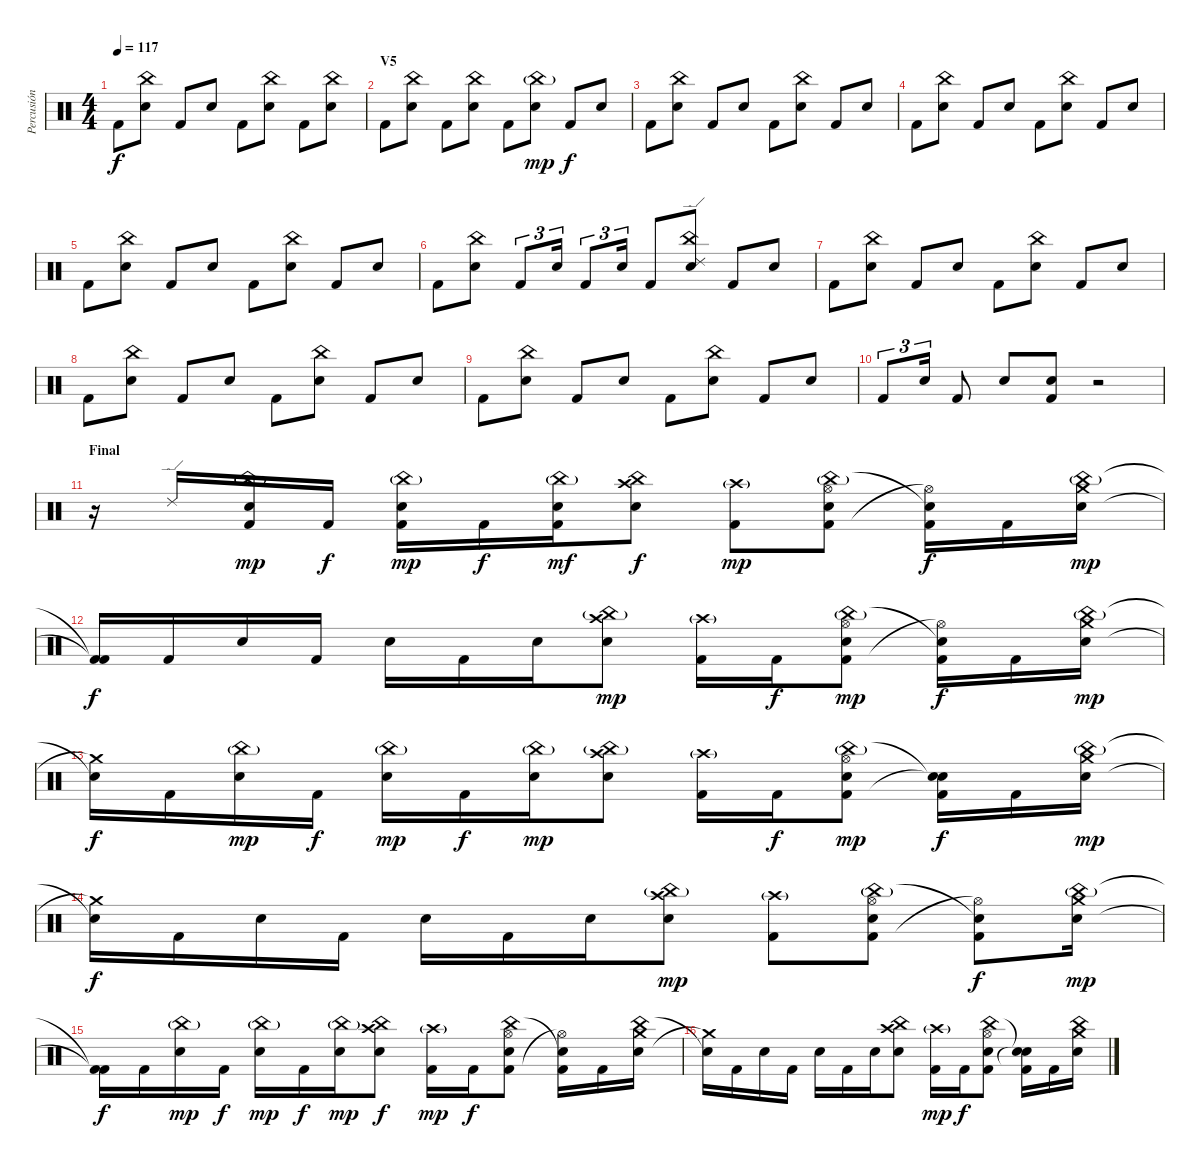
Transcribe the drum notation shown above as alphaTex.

\track ("Percusión" "Percusión") {instrument percussion}
\staff {score}
\articulation defaults
\ts (4 4)
\tempo 117
\clef neutral
\ks c "Kick (hit) 2".8{dy f}
("Snare (hit) 2" "China (hit)").8 "Kick (hit) 2".8 "Snare (hit) 2".8 "Kick (hit) 2".8 ("Electric Snare (hit)" "China (hit)").8 "Kick (hit) 2".8 ("Electric Snare (hit)" "China (hit)").8 |
\section ("" "V5")
"Kick (hit) 2".8 ("Electric Snare (hit)" "China (hit)").8 "Kick (hit) 2".8 ("Electric Snare (hit)" "China (hit)").8 "Kick (hit) 2".8 ("Snare (hit) 2" "China (hit)"{g}).8{dy mp} "Kick (hit) 2".8{dy f} "Snare (hit) 2".8 |
"Kick (hit) 2".8 ("Snare (hit) 2" "China (hit)").8 "Kick (hit) 2".8 "Snare (hit) 2".8 "Kick (hit) 2".8 ("Snare (hit) 2" "China (hit)").8 "Kick (hit) 2".8 "Snare (hit) 2".8 |
"Kick (hit) 2".8 ("Snare (hit) 2" "China (hit)").8 "Kick (hit) 2".8 "Snare (hit) 2".8 "Kick (hit) 2".8 ("Snare (hit) 2" "China (hit)").8 "Kick (hit) 2".8 "Snare (hit) 2".8 |
"Kick (hit) 2".8 ("Snare (hit) 2" "China (hit)").8 "Kick (hit) 2".8 "Snare (hit) 2".8 "Kick (hit) 2".8 ("Snare (hit) 2" "China (hit)").8 "Kick (hit) 2".8 "Snare (hit) 2".8 |
"Kick (hit) 2".8 ("Snare (hit) 2" "China (hit)").8 "Kick (hit) 2".8{tu (3 2)} "Snare (hit) 2".16{tu (3 2)} "Kick (hit) 2".8{tu (3 2)} "Snare (hit) 2".16{tu (3 2)} "Kick (hit) 2".8 ("Snare (hit) 2" "China (hit)" "Ride (edge) 2").8 "Kick (hit) 2".8 "Snare (hit) 2".8 |
"Kick (hit) 2".8 ("Snare (hit) 2" "China (hit)").8 "Kick (hit) 2".8 "Snare (hit) 2".8 "Kick (hit) 2".8 ("Snare (hit) 2" "China (hit)").8 "Kick (hit) 2".8 "Snare (hit) 2".8 |
"Kick (hit) 2".8 ("Snare (hit) 2" "China (hit)").8 "Kick (hit) 2".8 "Snare (hit) 2".8 "Kick (hit) 2".8 ("Snare (hit) 2" "China (hit)").8 "Kick (hit) 2".8 "Snare (hit) 2".8 |
"Kick (hit) 2".8 ("Snare (hit) 2" "China (hit)").8 "Kick (hit) 2".8 "Snare (hit) 2".8 "Kick (hit) 2".8 ("Snare (hit) 2" "China (hit)").8 "Kick (hit) 2".8 "Snare (hit) 2".8 |
"Kick (hit) 2".8{tu (3 2)} "Snare (hit) 2".16{tu (3 2)} "Kick (hit) 2".8 "Snare (hit) 2".8 ("Kick (hit) 2" "Snare (hit) 2").8 r.2 |
\section ("" "Final")
r.16 "Ride (edge) 2".16 ("China (hit)"{g} "Electric Snare (hit)" "Kick (hit) 2").16{dy mp} "Kick (hit) 2".16{dy f} ("China (hit)"{g} "Electric Snare (hit)" "Kick (hit) 2").16{dy mp} "Kick (hit) 2".16{dy f} ("China (hit)"{g} "Electric Snare (hit)" "Kick (hit) 2").16{dy mf} ("China (hit)" "Electric Snare (hit)" "Crash high (hit)").8{dy f} ("Crash high (hit)"{g} "Kick (hit) 2").8{dy mp} ("China (hit)"{g} "Kick (hit) 2" "Hi-Hat (open)" "Electric Snare (hit)").8 ("Snare (hit)"{t} "Hi-Hat (open)"{t} "Kick (hit) 2").16{dy f} "Kick (hit) 2".16 ("China (hit)"{g} "Electric Snare (hit)" "Crash medium (hit)").16{dy mp} |
("Kick (hit) 2"{t} "Kick (hit) 2"{t}).16{dy f} "Kick (hit) 2".16 "Snare (hit) 2".16 "Kick (hit) 2".16 "Snare (hit) 2".16 "Kick (hit) 2".16 "Snare (hit) 2".16 ("China (hit)"{g} "Electric Snare (hit)" "Crash high (hit)").8{dy mp} ("Crash high (hit)"{g} "Kick (hit) 2").16 "Kick (hit) 2".16{dy f} ("China (hit)"{g} "Kick (hit) 2" "Hi-Hat (open)" "Electric Snare (hit)").8{dy mp} ("Snare (hit)"{t} "Hi-Hat (open)"{t} "Kick (hit) 2").16{dy f} "Kick (hit) 2".16 ("China (hit)"{g} "Electric Snare (hit)" "Crash medium (hit)").16{dy mp} |
("Snare (hit)"{t} "Crash medium (hit)"{t}).16{dy f} "Kick (hit) 2".16 ("China (hit)"{g} "Electric Snare (hit)").16{dy mp} "Kick (hit) 2".16{dy f} ("China (hit)"{g} "Electric Snare (hit)").16{dy mp} "Kick (hit) 2".16{dy f} ("China (hit)"{g} "Electric Snare (hit)").16{dy mp} ("China (hit)"{g} "Snare (hit) 2" "Crash high (hit)").8 ("Crash high (hit)"{g} "Kick (hit) 2").16 "Kick (hit) 2".16{dy f} ("China (hit)"{g} "Kick (hit) 2" "Hi-Hat (open)" "Electric Snare (hit)").8{dy mp} ("Snare (hit)"{t} "Snare (hit)"{t} "Kick (hit) 2").16{dy f} "Kick (hit) 2".16 ("China (hit)"{g} "Snare (hit) 2" "Crash medium (hit)").16{dy mp} |
("Snare (hit)"{t} "Crash medium (hit)"{t}).16{dy f} "Kick (hit) 2".16 "Snare (hit) 2".16 "Kick (hit) 2".16 "Snare (hit) 2".16 "Kick (hit) 2".16 "Snare (hit) 2".16 ("China (hit)"{g} "Snare (hit) 2" "Crash high (hit)").8{dy mp} ("Crash high (hit)"{g} "Kick (hit) 2").8 ("China (hit)"{g} "Kick (hit) 2" "Hi-Hat (open)" "Electric Snare (hit)").8 ("Snare (hit)"{t} "Hi-Hat (open)"{t} "Kick (hit) 2").8{dy f} ("China (hit)"{g} "Snare (hit) 2" "Crash medium (hit)").16{dy mp} |
("Kick (hit) 2"{t} "Kick (hit) 2"{t}).16{dy f} "Kick (hit) 2".16 ("China (hit)"{g} "Electric Snare (hit)").16{dy mp} "Kick (hit) 2".16{dy f} ("China (hit)"{g} "Electric Snare (hit)").16{dy mp} "Kick (hit) 2".16{dy f} ("China (hit)"{g} "Electric Snare (hit)").16{dy mp} ("China (hit)" "Electric Snare (hit)" "Crash high (hit)").8{dy f} ("Crash high (hit)"{g} "Kick (hit) 2").16{dy mp} "Kick (hit) 2".16{dy f} ("China (hit)" "Kick (hit) 2" "Hi-Hat (open)" "Electric Snare (hit)").8 ("Snare (hit)"{t} "Hi-Hat (open)"{t} "Kick (hit) 2").16 "Kick (hit) 2".16 ("China (hit)" "Electric Snare (hit)" "Crash medium (hit)").16 |
("Snare (hit)"{t} "Crash medium (hit)"{t}).16 "Kick (hit) 2".16 "Snare (hit) 2".16 "Kick (hit) 2".16 "Snare (hit) 2".16 "Kick (hit) 2".16 "Snare (hit) 2".16 ("China (hit)" "Snare (hit) 2" "Crash high (hit)").8 ("Crash high (hit)"{g} "Kick (hit) 2").16{dy mp} "Kick (hit) 2".16{dy f} ("China (hit)" "Kick (hit) 2" "Hi-Hat (open)" "Electric Snare (hit)").8 ("Snare (hit)"{t} "Snare (hit)"{t} "Kick (hit) 2").16 "Kick (hit) 2".16 ("China (hit)" "Snare (hit) 2" "Crash medium (hit)").16
